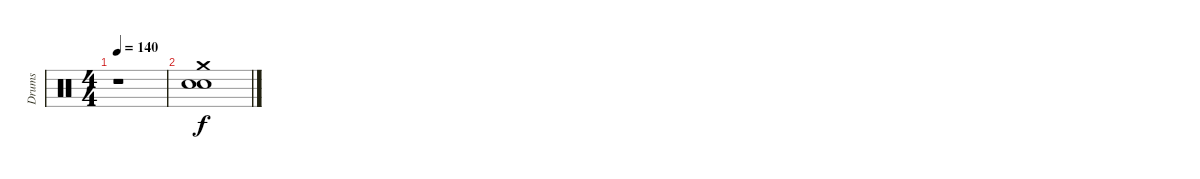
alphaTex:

\track ("Drums" "Drums") {instrument percussion}
\staff {score}
\articulation defaults
\ts (4 4)
\tempo 140
\clef neutral
\ks c
r.1{dy f} |
("Snare (hit) 2" "Electric Snare (hit)" "Crash medium (hit)").1
